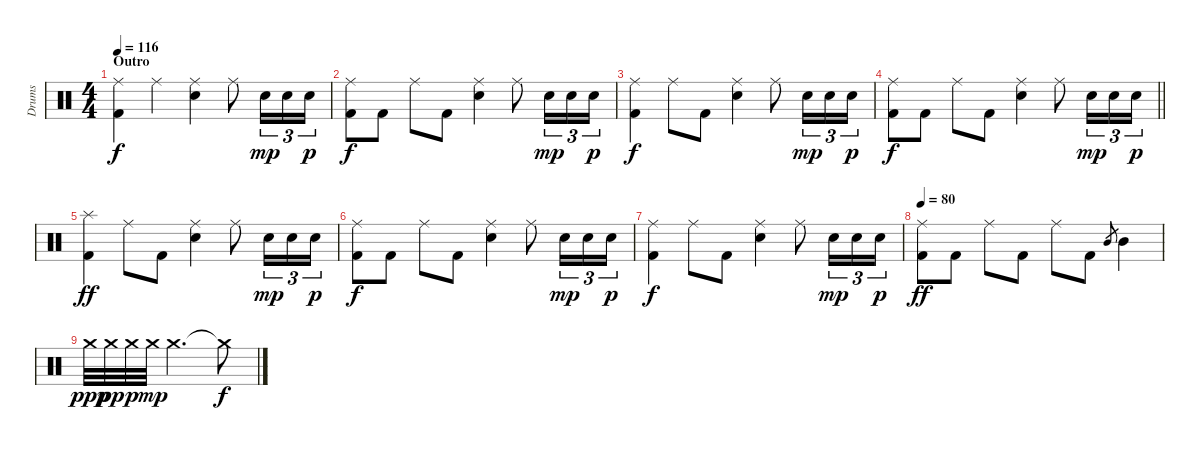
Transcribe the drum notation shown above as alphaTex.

\track ("Drums" "Drums") {instrument percussion}
\staff {score}
\articulation defaults
\ts (4 4)
\section ("" "Outro")
\tempo 116
\clef neutral
\ks c
("Ride (middle)" "Kick (hit) 2").4{dy f} "Ride (middle)".4 ("Ride (middle)" "Electric Snare (hit)").4 "Ride (middle)".8 "Electric Snare (hit)".16{tu (3 2) dy mp} "Electric Snare (hit)".16{tu (3 2)} "Electric Snare (hit)".16{tu (3 2) dy p} |
("Ride (middle)" "Kick (hit) 2").8{dy f} "Kick (hit) 2".8 "Ride (middle)".8 "Kick (hit) 2".8 ("Ride (middle)" "Electric Snare (hit)").4 "Ride (middle)".8 "Electric Snare (hit)".16{tu (3 2) dy mp} "Electric Snare (hit)".16{tu (3 2)} "Electric Snare (hit)".16{tu (3 2) dy p} |
("Ride (middle)" "Kick (hit) 2").4{dy f} "Ride (middle)".8 "Kick (hit) 2".8 ("Ride (middle)" "Electric Snare (hit)").4 "Ride (middle)".8 "Electric Snare (hit)".16{tu (3 2) dy mp} "Electric Snare (hit)".16{tu (3 2)} "Electric Snare (hit)".16{tu (3 2) dy p} |
\barLineRight lightlight
("Ride (middle)" "Kick (hit) 2").8{dy f} "Kick (hit) 2".8 "Ride (middle)".8 "Kick (hit) 2".8 ("Ride (middle)" "Electric Snare (hit)").4 "Ride (middle)".8 "Electric Snare (hit)".16{tu (3 2) dy mp} "Electric Snare (hit)".16{tu (3 2)} "Electric Snare (hit)".16{tu (3 2) dy p} |
("Splash (hit)" "Kick (hit) 2").4{dy ff} "Ride (middle)".8 "Kick (hit) 2".8 ("Ride (middle)" "Electric Snare (hit)").4 "Ride (middle)".8 "Electric Snare (hit)".16{tu (3 2) dy mp} "Electric Snare (hit)".16{tu (3 2)} "Electric Snare (hit)".16{tu (3 2) dy p} |
("Ride (middle)" "Kick (hit) 2").8{dy f} "Kick (hit) 2".8 "Ride (middle)".8 "Kick (hit) 2".8 ("Ride (middle)" "Electric Snare (hit)").4 "Ride (middle)".8 "Electric Snare (hit)".16{tu (3 2) dy mp} "Electric Snare (hit)".16{tu (3 2)} "Electric Snare (hit)".16{tu (3 2) dy p} |
("Ride (middle)" "Kick (hit) 2").4{dy f} "Ride (middle)".8 "Kick (hit) 2".8 ("Ride (middle)" "Electric Snare (hit)").4 "Ride (middle)".8 "Electric Snare (hit)".16{tu (3 2) dy mp} "Electric Snare (hit)".16{tu (3 2)} "Electric Snare (hit)".16{tu (3 2) dy p} |
\tempo 80
("Ride (middle)" "Kick (hit) 2").8{dy ff} "Kick (hit) 2".8 "Ride (middle)".8 "Kick (hit) 2".8 "Ride (middle)".8 "Kick (hit) 2".8 "Mid Tom (hit)".8{gr} "Mid Tom (hit)".4 |
"Crash medium (hit)".32{dy ppp} "Crash medium (hit)".32{dy pp} "Crash medium (hit)".32{dy p} "Crash medium (hit)".32{dy mp} "Crash medium (hit)".2{d} "Crash medium (hit)"{t}.8{dy f}
